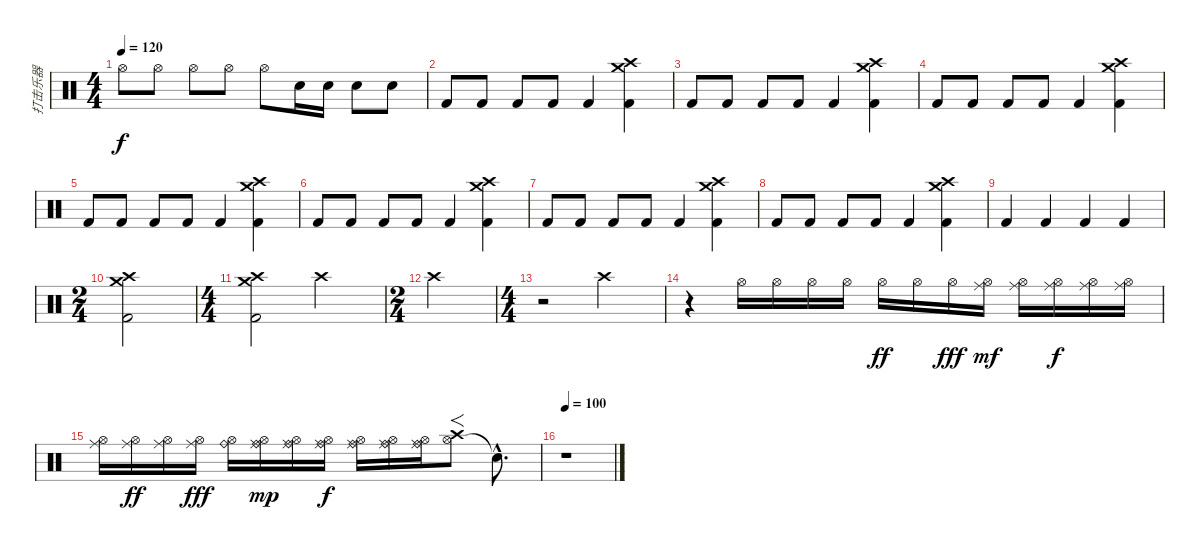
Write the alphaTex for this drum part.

\track ("打击乐器" "打击乐器") {instrument percussion}
\staff {score}
\articulation defaults
\ts (4 4)
\tempo 120
\clef neutral
\ks c "Hi-Hat (open)".8{dy f} "Hi-Hat (open)".8 "Hi-Hat (open)".8 "Hi-Hat (open)".8 "Hi-Hat (open)".8 "Electric Snare (hit)".16 "Electric Snare (hit)".16 "Electric Snare (hit)".8 "Electric Snare (hit)".8
|
"Kick (hit) 2".8 "Kick (hit) 2".8 "Kick (hit) 2".8 "Kick (hit) 2".8 "Kick (hit) 2".4 ("Crash medium (hit)" "Crash high (hit)" "Kick (hit) 2").4 |
"Kick (hit) 2".8 "Kick (hit) 2".8 "Kick (hit) 2".8 "Kick (hit) 2".8 "Kick (hit) 2".4 ("Crash medium (hit)" "Crash high (hit)" "Kick (hit) 2").4 |
"Kick (hit) 2".8 "Kick (hit) 2".8 "Kick (hit) 2".8 "Kick (hit) 2".8 "Kick (hit) 2".4 ("Crash medium (hit)" "Crash high (hit)" "Kick (hit) 2").4 |
"Kick (hit) 2".8 "Kick (hit) 2".8 "Kick (hit) 2".8 "Kick (hit) 2".8 "Kick (hit) 2".4 ("Crash medium (hit)" "Crash high (hit)" "Kick (hit) 2").4 |
"Kick (hit) 2".8 "Kick (hit) 2".8 "Kick (hit) 2".8 "Kick (hit) 2".8 "Kick (hit) 2".4 ("Crash medium (hit)" "Crash high (hit)" "Kick (hit) 2").4 |
"Kick (hit) 2".8 "Kick (hit) 2".8 "Kick (hit) 2".8 "Kick (hit) 2".8 "Kick (hit) 2".4 ("Crash medium (hit)" "Crash high (hit)" "Kick (hit) 2").4 |
"Kick (hit) 2".8 "Kick (hit) 2".8 "Kick (hit) 2".8 "Kick (hit) 2".8 "Kick (hit) 2".4 ("Crash medium (hit)" "Crash high (hit)" "Kick (hit) 2").4 |
"Kick (hit) 2".4 "Kick (hit) 2".4 "Kick (hit) 2".4 "Kick (hit) 2".4 |
\ts (2 4)
("Crash medium (hit)" "Crash high (hit)" "Kick (hit) 2").2 |
\ts (4 4)
("Crash medium (hit)" "Crash high (hit)" "Kick (hit) 2").2 "Crash high (hit)".2 |
\ts (2 4)
"Crash high (hit)".2 |
\ts (4 4)
r.2 "Crash high (hit)".2 |
r.4 "Hi-Hat (open)".16 "Hi-Hat (open)".16 "Hi-Hat (open)".16 "Hi-Hat (open)".16 "Hi-Hat (open)".16{dy ff} "Hi-Hat (open)".16 "Hi-Hat (open)".16{dy fff} ("Hi-Hat (open)" "Ride (middle)").16{dy mf} ("Hi-Hat (open)" "Ride (middle)").16 ("Hi-Hat (open)" "Ride (middle)").16{dy f} ("Hi-Hat (open)" "Ride (middle)").16 ("Hi-Hat (open)" "Ride (middle)").16 |
("Hi-Hat (open)" "Ride (middle)").16 ("Hi-Hat (open)" "Ride (middle)").16{dy ff} ("Hi-Hat (open)" "Ride (middle)").16 ("Hi-Hat (open)" "Ride (middle)").16{dy fff} ("Hi-Hat (open)" "Ride (bell)").16 ("Hi-Hat (open)" "Ride (bell)" "Ride (middle)").16{dy mp} ("Hi-Hat (open)" "Ride (bell)" "Ride (middle)").16 ("Hi-Hat (open)" "Ride (bell)" "Ride (middle)").16{dy f} ("Hi-Hat (open)" "Ride (bell)" "Ride (middle)").16 ("Hi-Hat (open)" "Ride (bell)" "Ride (middle)").16 ("Hi-Hat (open)" "Ride (bell)" "Ride (middle)").16 ("Hi-Hat (open)" "Crash high (hit)").8{f} "Snare (hit)"{hac t}.8{d} |
\tempo 100
r.1
